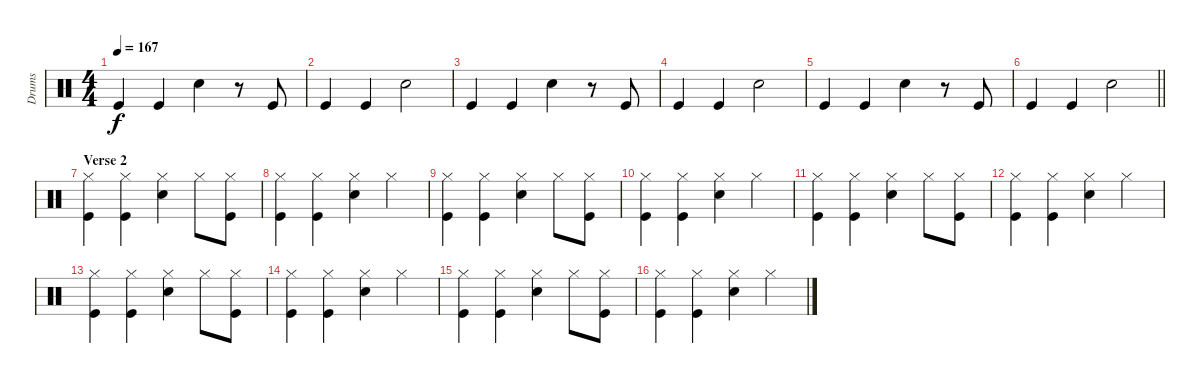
\track ("Drums" "Drums") {instrument percussion}
\staff {score}
\articulation defaults
\ts (4 4)
\tempo 167
\clef neutral
\ks c "Kick (hit)".4{dy f} "Kick (hit)".4 "Electric Snare (hit)".4
r.8 "Kick (hit)".8 |
"Kick (hit)".4 "Kick (hit)".4 "Electric Snare (hit)".2 |
"Kick (hit)".4 "Kick (hit)".4 "Electric Snare (hit)".4 r.8 "Kick (hit)".8 |
"Kick (hit)".4 "Kick (hit)".4 "Electric Snare (hit)".2 |
"Kick (hit)".4 "Kick (hit)".4 "Electric Snare (hit)".4 r.8 "Kick (hit)".8 |
\barLineRight lightlight "Kick (hit)".4 "Kick (hit)".4 "Electric Snare (hit)".2
|
\section ("" "Verse 2")
("Kick (hit)" "Hi-Hat (closed)").4 ("Kick (hit)" "Hi-Hat (closed)").4 ("Electric Snare (hit)" "Hi-Hat (closed)").4 "Hi-Hat (closed)".8 ("Kick (hit)" "Hi-Hat (closed)").8 |
("Kick (hit)" "Hi-Hat (closed)").4 ("Kick (hit)" "Hi-Hat (closed)").4 ("Electric Snare (hit)" "Hi-Hat (closed)").4 "Hi-Hat (closed)".4 |
("Kick (hit)" "Hi-Hat (closed)").4 ("Kick (hit)" "Hi-Hat (closed)").4 ("Electric Snare (hit)" "Hi-Hat (closed)").4 "Hi-Hat (closed)".8 ("Kick (hit)" "Hi-Hat (closed)").8 |
("Kick (hit)" "Hi-Hat (closed)").4 ("Kick (hit)" "Hi-Hat (closed)").4 ("Electric Snare (hit)" "Hi-Hat (closed)").4 "Hi-Hat (closed)".4 |
("Kick (hit)" "Hi-Hat (closed)").4 ("Kick (hit)" "Hi-Hat (closed)").4 ("Electric Snare (hit)" "Hi-Hat (closed)").4 "Hi-Hat (closed)".8 ("Kick (hit)" "Hi-Hat (closed)").8 |
("Kick (hit)" "Hi-Hat (closed)").4 ("Kick (hit)" "Hi-Hat (closed)").4 ("Electric Snare (hit)" "Hi-Hat (closed)").4 "Hi-Hat (closed)".4 |
("Kick (hit)" "Hi-Hat (closed)").4 ("Kick (hit)" "Hi-Hat (closed)").4 ("Electric Snare (hit)" "Hi-Hat (closed)").4 "Hi-Hat (closed)".8 ("Kick (hit)" "Hi-Hat (closed)").8 |
("Kick (hit)" "Hi-Hat (closed)").4 ("Kick (hit)" "Hi-Hat (closed)").4 ("Electric Snare (hit)" "Hi-Hat (closed)").4 "Hi-Hat (closed)".4 |
("Kick (hit)" "Hi-Hat (closed)").4 ("Kick (hit)" "Hi-Hat (closed)").4 ("Electric Snare (hit)" "Hi-Hat (closed)").4 "Hi-Hat (closed)".8 ("Kick (hit)" "Hi-Hat (closed)").8 |
("Kick (hit)" "Hi-Hat (closed)").4 ("Kick (hit)" "Hi-Hat (closed)").4 ("Electric Snare (hit)" "Hi-Hat (closed)").4 "Hi-Hat (closed)".4
